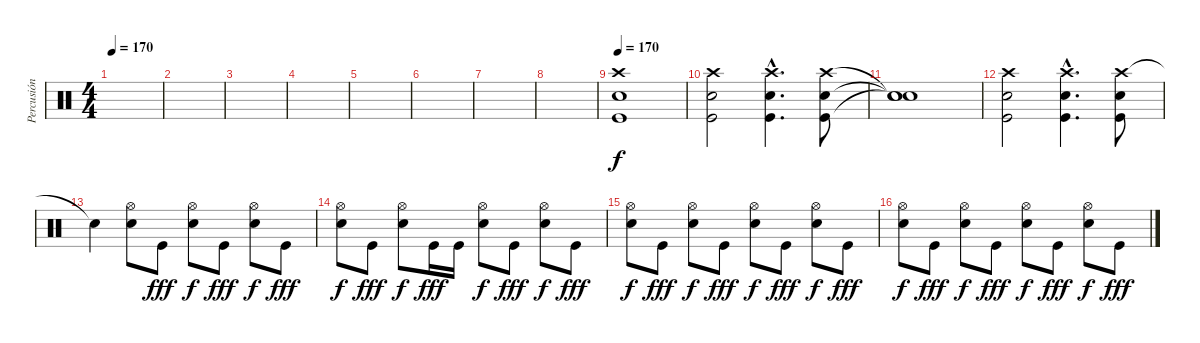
\track ("Percusión" "Percusión") {instrument percussion}
\staff {score}
\articulation defaults
\ts (4 4)
\tempo 170
\clef neutral
\ks c
|
|
|
|
|
|
|
|
\tempo 170
("Crash high (hit)" "Electric Snare (hit)" "Kick (hit)").1 |
("Crash high (hit)" "Electric Snare (hit)" "Kick (hit)").2 ("Crash high (hit)"{hac} "Electric Snare (hit)"{hac} "Kick (hit)"{hac}).4{d} ("Crash high (hit)" "Electric Snare (hit)" "Kick (hit)").8 |
("Snare (hit)"{t} "Snare (hit)"{t} "Snare (hit)"{t}).1 |
("Crash high (hit)" "Electric Snare (hit)" "Kick (hit)").2 ("Crash high (hit)"{hac} "Electric Snare (hit)"{hac} "Kick (hit)"{hac}).4{d} ("Crash high (hit)" "Electric Snare (hit)" "Kick (hit)").8 |
"Snare (hit)"{t}.4 ("Hi-Hat (open)" "Electric Snare (hit)").8 "Kick (hit)".8{dy fff} ("Hi-Hat (open)" "Electric Snare (hit)").8{dy f} "Kick (hit)".8{dy fff} ("Hi-Hat (open)" "Electric Snare (hit)").8{dy f} "Kick (hit)".8{dy fff} |
("Hi-Hat (open)" "Electric Snare (hit)").8{dy f} "Kick (hit)".8{dy fff} ("Hi-Hat (open)" "Electric Snare (hit)").8{dy f} "Kick (hit)".16{dy fff} "Kick (hit)".16 ("Hi-Hat (open)" "Electric Snare (hit)").8{dy f} "Kick (hit)".8{dy fff} ("Hi-Hat (open)" "Electric Snare (hit)").8{dy f} "Kick (hit)".8{dy fff} |
("Hi-Hat (open)" "Electric Snare (hit)").8{dy f} "Kick (hit)".8{dy fff} ("Hi-Hat (open)" "Electric Snare (hit)").8{dy f} "Kick (hit)".8{dy fff} ("Hi-Hat (open)" "Electric Snare (hit)").8{dy f} "Kick (hit)".8{dy fff} ("Hi-Hat (open)" "Electric Snare (hit)").8{dy f} "Kick (hit)".8{dy fff} |
("Hi-Hat (open)" "Electric Snare (hit)").8{dy f} "Kick (hit)".8{dy fff} ("Hi-Hat (open)" "Electric Snare (hit)").8{dy f} "Kick (hit)".8{dy fff} ("Hi-Hat (open)" "Electric Snare (hit)").8{dy f} "Kick (hit)".8{dy fff} ("Hi-Hat (open)" "Electric Snare (hit)").8{dy f} "Kick (hit)".8{dy fff}
